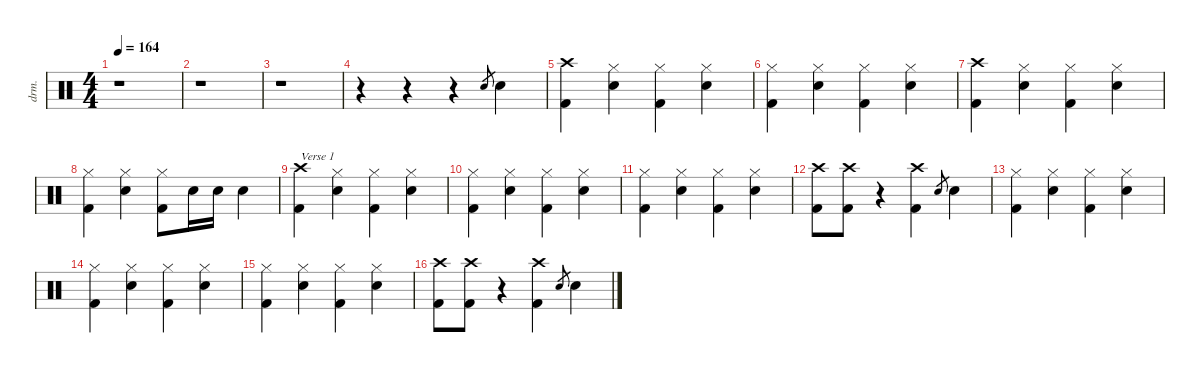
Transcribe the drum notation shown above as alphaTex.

\defaultSystemsLayout 4
\hideDynamics
\bracketExtendMode nobrackets
\track ("Drums" "drm.") {instrument percussion}
\staff {score}
\articulation defaults
\ts (4 4)
\tempo 164
\clef neutral
\ks c
r.1{dy mf} |
r.1 |
r.1 |
r.4 r.4 r.4 "Snare (hit) 2".8{gr} "Snare (hit) 2".4{dy f} |
("Crash high (hit)" "Kick (hit) 2").4{dy fff} ("Hi-Hat (closed)" "Snare (hit) 2").4{dy f} ("Hi-Hat (closed)" "Kick (hit) 2").4 ("Hi-Hat (closed)" "Snare (hit) 2").4 |
("Hi-Hat (closed)" "Kick (hit) 2").4 ("Hi-Hat (closed)" "Snare (hit) 2").4 ("Hi-Hat (closed)" "Kick (hit) 2").4 ("Hi-Hat (closed)" "Snare (hit) 2").4 |
("Crash high (hit)" "Kick (hit) 2").4{dy fff} ("Hi-Hat (closed)" "Snare (hit) 2").4{dy f} ("Hi-Hat (closed)" "Kick (hit) 2").4 ("Hi-Hat (closed)" "Snare (hit) 2").4 |
("Hi-Hat (closed)" "Kick (hit) 2").4 ("Hi-Hat (closed)" "Snare (hit) 2").4 ("Hi-Hat (closed)" "Kick (hit) 2").8 "Snare (hit) 2".16 "Snare (hit) 2".16{dy mf} "Snare (hit) 2".4{dy f} |
("Crash high (hit)" "Kick (hit) 2").4{txt "Verse 1" dy fff} ("Hi-Hat (closed)" "Snare (hit) 2").4{dy f} ("Hi-Hat (closed)" "Kick (hit) 2").4 ("Hi-Hat (closed)" "Snare (hit) 2").4 |
("Hi-Hat (closed)" "Kick (hit) 2").4 ("Hi-Hat (closed)" "Snare (hit) 2").4 ("Hi-Hat (closed)" "Kick (hit) 2").4 ("Hi-Hat (closed)" "Snare (hit) 2").4 |
("Hi-Hat (closed)" "Kick (hit) 2").4 ("Hi-Hat (closed)" "Snare (hit) 2").4 ("Hi-Hat (closed)" "Kick (hit) 2").4 ("Hi-Hat (closed)" "Snare (hit) 2").4 |
("Crash high (hit)" "Kick (hit) 2").8{dy fff} ("Crash high (hit)" "Kick (hit) 2").8 r.4 ("Crash high (hit)" "Kick (hit) 2").4 "Snare (hit) 2".8{gr dy mf} "Snare (hit) 2".4{dy f} |
("Hi-Hat (closed)" "Kick (hit) 2").4 ("Hi-Hat (closed)" "Snare (hit) 2").4 ("Hi-Hat (closed)" "Kick (hit) 2").4 ("Hi-Hat (closed)" "Snare (hit) 2").4 |
("Hi-Hat (closed)" "Kick (hit) 2").4 ("Hi-Hat (closed)" "Snare (hit) 2").4 ("Hi-Hat (closed)" "Kick (hit) 2").4 ("Hi-Hat (closed)" "Snare (hit) 2").4 |
("Hi-Hat (closed)" "Kick (hit) 2").4 ("Hi-Hat (closed)" "Snare (hit) 2").4 ("Hi-Hat (closed)" "Kick (hit) 2").4 ("Hi-Hat (closed)" "Snare (hit) 2").4 |
("Crash high (hit)" "Kick (hit) 2").8{dy fff} ("Crash high (hit)" "Kick (hit) 2").8 r.4 ("Crash high (hit)" "Kick (hit) 2").4 "Snare (hit) 2".8{gr dy mf} "Snare (hit) 2".4{dy f}
